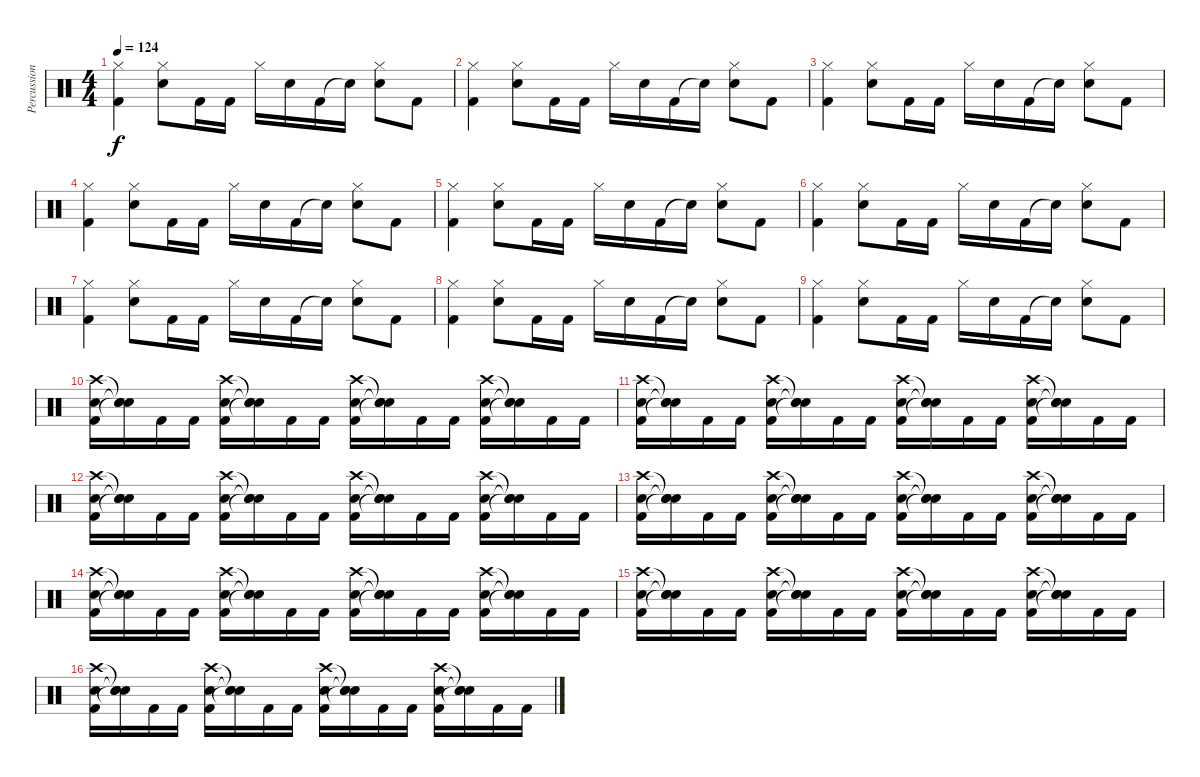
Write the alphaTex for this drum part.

\track ("Percussions" "Percussion") {instrument percussion}
\staff {score}
\articulation defaults
\ts (4 4)
\tempo 124
\clef neutral
\ks c
("Kick (hit) 2" "Hi-Hat (closed)").4{dy f} ("Electric Snare (hit)" "Hi-Hat (closed)").8 "Kick (hit) 2".16 "Kick (hit) 2".16 "Hi-Hat (closed)".16 "Electric Snare (hit)".16 "Kick (hit) 2".16 "Snare (hit)"{t}.16 ("Electric Snare (hit)" "Hi-Hat (closed)").8 "Kick (hit) 2".8 |
("Kick (hit) 2" "Hi-Hat (closed)").4 ("Electric Snare (hit)" "Hi-Hat (closed)").8 "Kick (hit) 2".16 "Kick (hit) 2".16 "Hi-Hat (closed)".16 "Electric Snare (hit)".16 "Kick (hit) 2".16 "Snare (hit)"{t}.16 ("Electric Snare (hit)" "Hi-Hat (closed)").8 "Kick (hit) 2".8 |
("Kick (hit) 2" "Hi-Hat (closed)").4 ("Electric Snare (hit)" "Hi-Hat (closed)").8 "Kick (hit) 2".16 "Kick (hit) 2".16 "Hi-Hat (closed)".16 "Electric Snare (hit)".16 "Kick (hit) 2".16 "Snare (hit)"{t}.16 ("Electric Snare (hit)" "Hi-Hat (closed)").8 "Kick (hit) 2".8 |
("Kick (hit) 2" "Hi-Hat (closed)").4 ("Electric Snare (hit)" "Hi-Hat (closed)").8 "Kick (hit) 2".16 "Kick (hit) 2".16 "Hi-Hat (closed)".16 "Electric Snare (hit)".16 "Kick (hit) 2".16 "Snare (hit)"{t}.16 ("Electric Snare (hit)" "Hi-Hat (closed)").8 "Kick (hit) 2".8 |
("Kick (hit) 2" "Hi-Hat (closed)").4 ("Electric Snare (hit)" "Hi-Hat (closed)").8 "Kick (hit) 2".16 "Kick (hit) 2".16 "Hi-Hat (closed)".16 "Electric Snare (hit)".16 "Kick (hit) 2".16 "Snare (hit)"{t}.16 ("Electric Snare (hit)" "Hi-Hat (closed)").8 "Kick (hit) 2".8 |
("Kick (hit) 2" "Hi-Hat (closed)").4 ("Electric Snare (hit)" "Hi-Hat (closed)").8 "Kick (hit) 2".16 "Kick (hit) 2".16 "Hi-Hat (closed)".16 "Electric Snare (hit)".16 "Kick (hit) 2".16 "Snare (hit)"{t}.16 ("Electric Snare (hit)" "Hi-Hat (closed)").8 "Kick (hit) 2".8 |
("Kick (hit) 2" "Hi-Hat (closed)").4 ("Electric Snare (hit)" "Hi-Hat (closed)").8 "Kick (hit) 2".16 "Kick (hit) 2".16 "Hi-Hat (closed)".16 "Electric Snare (hit)".16 "Kick (hit) 2".16 "Snare (hit)"{t}.16 ("Electric Snare (hit)" "Hi-Hat (closed)").8 "Kick (hit) 2".8 |
("Kick (hit) 2" "Hi-Hat (closed)").4 ("Electric Snare (hit)" "Hi-Hat (closed)").8 "Kick (hit) 2".16 "Kick (hit) 2".16 "Hi-Hat (closed)".16 "Electric Snare (hit)".16 "Kick (hit) 2".16 "Snare (hit)"{t}.16 ("Electric Snare (hit)" "Hi-Hat (closed)").8 "Kick (hit) 2".8 |
("Kick (hit) 2" "Hi-Hat (closed)").4 ("Electric Snare (hit)" "Hi-Hat (closed)").8 "Kick (hit) 2".16 "Kick (hit) 2".16 "Hi-Hat (closed)".16 "Electric Snare (hit)".16 "Kick (hit) 2".16 "Snare (hit)"{t}.16 ("Electric Snare (hit)" "Hi-Hat (closed)").8 "Kick (hit) 2".8 |
("Kick (hit) 2" "Electric Snare (hit)" "Crash high (hit)").16 ("Snare (hit)"{t} "Snare (hit)"{t} "Snare (hit)"{t}).16 "Kick (hit) 2".16 "Kick (hit) 2".16 ("Kick (hit) 2" "Electric Snare (hit)" "Crash high (hit)").16 ("Snare (hit)"{t} "Snare (hit)"{t} "Snare (hit)"{t}).16 "Kick (hit) 2".16 "Kick (hit) 2".16 ("Kick (hit) 2" "Electric Snare (hit)" "Crash high (hit)").16 ("Snare (hit)"{t} "Snare (hit)"{t} "Snare (hit)"{t}).16 "Kick (hit) 2".16 "Kick (hit) 2".16 ("Kick (hit) 2" "Electric Snare (hit)" "Crash high (hit)").16 ("Snare (hit)"{t} "Snare (hit)"{t} "Snare (hit)"{t}).16 "Kick (hit) 2".16 "Kick (hit) 2".16 |
("Kick (hit) 2" "Electric Snare (hit)" "Crash high (hit)").16 ("Snare (hit)"{t} "Snare (hit)"{t} "Snare (hit)"{t}).16 "Kick (hit) 2".16 "Kick (hit) 2".16 ("Kick (hit) 2" "Electric Snare (hit)" "Crash high (hit)").16 ("Snare (hit)"{t} "Snare (hit)"{t} "Snare (hit)"{t}).16 "Kick (hit) 2".16 "Kick (hit) 2".16 ("Kick (hit) 2" "Electric Snare (hit)" "Crash high (hit)").16 ("Snare (hit)"{t} "Snare (hit)"{t} "Snare (hit)"{t}).16 "Kick (hit) 2".16 "Kick (hit) 2".16 ("Kick (hit) 2" "Electric Snare (hit)" "Crash high (hit)").16 ("Snare (hit)"{t} "Snare (hit)"{t} "Snare (hit)"{t}).16 "Kick (hit) 2".16 "Kick (hit) 2".16 |
("Kick (hit) 2" "Electric Snare (hit)" "Crash high (hit)").16 ("Snare (hit)"{t} "Snare (hit)"{t} "Snare (hit)"{t}).16 "Kick (hit) 2".16 "Kick (hit) 2".16 ("Kick (hit) 2" "Electric Snare (hit)" "Crash high (hit)").16 ("Snare (hit)"{t} "Snare (hit)"{t} "Snare (hit)"{t}).16 "Kick (hit) 2".16 "Kick (hit) 2".16 ("Kick (hit) 2" "Electric Snare (hit)" "Crash high (hit)").16 ("Snare (hit)"{t} "Snare (hit)"{t} "Snare (hit)"{t}).16 "Kick (hit) 2".16 "Kick (hit) 2".16 ("Kick (hit) 2" "Electric Snare (hit)" "Crash high (hit)").16 ("Snare (hit)"{t} "Snare (hit)"{t} "Snare (hit)"{t}).16 "Kick (hit) 2".16 "Kick (hit) 2".16 |
("Kick (hit) 2" "Electric Snare (hit)" "Crash high (hit)").16 ("Snare (hit)"{t} "Snare (hit)"{t} "Snare (hit)"{t}).16 "Kick (hit) 2".16 "Kick (hit) 2".16 ("Kick (hit) 2" "Electric Snare (hit)" "Crash high (hit)").16 ("Snare (hit)"{t} "Snare (hit)"{t} "Snare (hit)"{t}).16 "Kick (hit) 2".16 "Kick (hit) 2".16 ("Kick (hit) 2" "Electric Snare (hit)" "Crash high (hit)").16 ("Snare (hit)"{t} "Snare (hit)"{t} "Snare (hit)"{t}).16 "Kick (hit) 2".16 "Kick (hit) 2".16 ("Kick (hit) 2" "Electric Snare (hit)" "Crash high (hit)").16 ("Snare (hit)"{t} "Snare (hit)"{t} "Snare (hit)"{t}).16 "Kick (hit) 2".16 "Kick (hit) 2".16 |
("Kick (hit) 2" "Electric Snare (hit)" "Crash high (hit)").16 ("Snare (hit)"{t} "Snare (hit)"{t} "Snare (hit)"{t}).16 "Kick (hit) 2".16 "Kick (hit) 2".16 ("Kick (hit) 2" "Electric Snare (hit)" "Crash high (hit)").16 ("Snare (hit)"{t} "Snare (hit)"{t} "Snare (hit)"{t}).16 "Kick (hit) 2".16 "Kick (hit) 2".16 ("Kick (hit) 2" "Electric Snare (hit)" "Crash high (hit)").16 ("Snare (hit)"{t} "Snare (hit)"{t} "Snare (hit)"{t}).16 "Kick (hit) 2".16 "Kick (hit) 2".16 ("Kick (hit) 2" "Electric Snare (hit)" "Crash high (hit)").16 ("Snare (hit)"{t} "Snare (hit)"{t} "Snare (hit)"{t}).16 "Kick (hit) 2".16 "Kick (hit) 2".16 |
("Kick (hit) 2" "Electric Snare (hit)" "Crash high (hit)").16 ("Snare (hit)"{t} "Snare (hit)"{t} "Snare (hit)"{t}).16 "Kick (hit) 2".16 "Kick (hit) 2".16 ("Kick (hit) 2" "Electric Snare (hit)" "Crash high (hit)").16 ("Snare (hit)"{t} "Snare (hit)"{t} "Snare (hit)"{t}).16 "Kick (hit) 2".16 "Kick (hit) 2".16 ("Kick (hit) 2" "Electric Snare (hit)" "Crash high (hit)").16 ("Snare (hit)"{t} "Snare (hit)"{t} "Snare (hit)"{t}).16 "Kick (hit) 2".16 "Kick (hit) 2".16 ("Kick (hit) 2" "Electric Snare (hit)" "Crash high (hit)").16 ("Snare (hit)"{t} "Snare (hit)"{t} "Snare (hit)"{t}).16 "Kick (hit) 2".16 "Kick (hit) 2".16 |
("Kick (hit) 2" "Electric Snare (hit)" "Crash high (hit)").16 ("Snare (hit)"{t} "Snare (hit)"{t} "Snare (hit)"{t}).16 "Kick (hit) 2".16 "Kick (hit) 2".16 ("Kick (hit) 2" "Electric Snare (hit)" "Crash high (hit)").16 ("Snare (hit)"{t} "Snare (hit)"{t} "Snare (hit)"{t}).16 "Kick (hit) 2".16 "Kick (hit) 2".16 ("Kick (hit) 2" "Electric Snare (hit)" "Crash high (hit)").16 ("Snare (hit)"{t} "Snare (hit)"{t} "Snare (hit)"{t}).16 "Kick (hit) 2".16 "Kick (hit) 2".16 ("Kick (hit) 2" "Electric Snare (hit)" "Crash high (hit)").16 ("Snare (hit)"{t} "Snare (hit)"{t} "Snare (hit)"{t}).16 "Kick (hit) 2".16 "Kick (hit) 2".16
